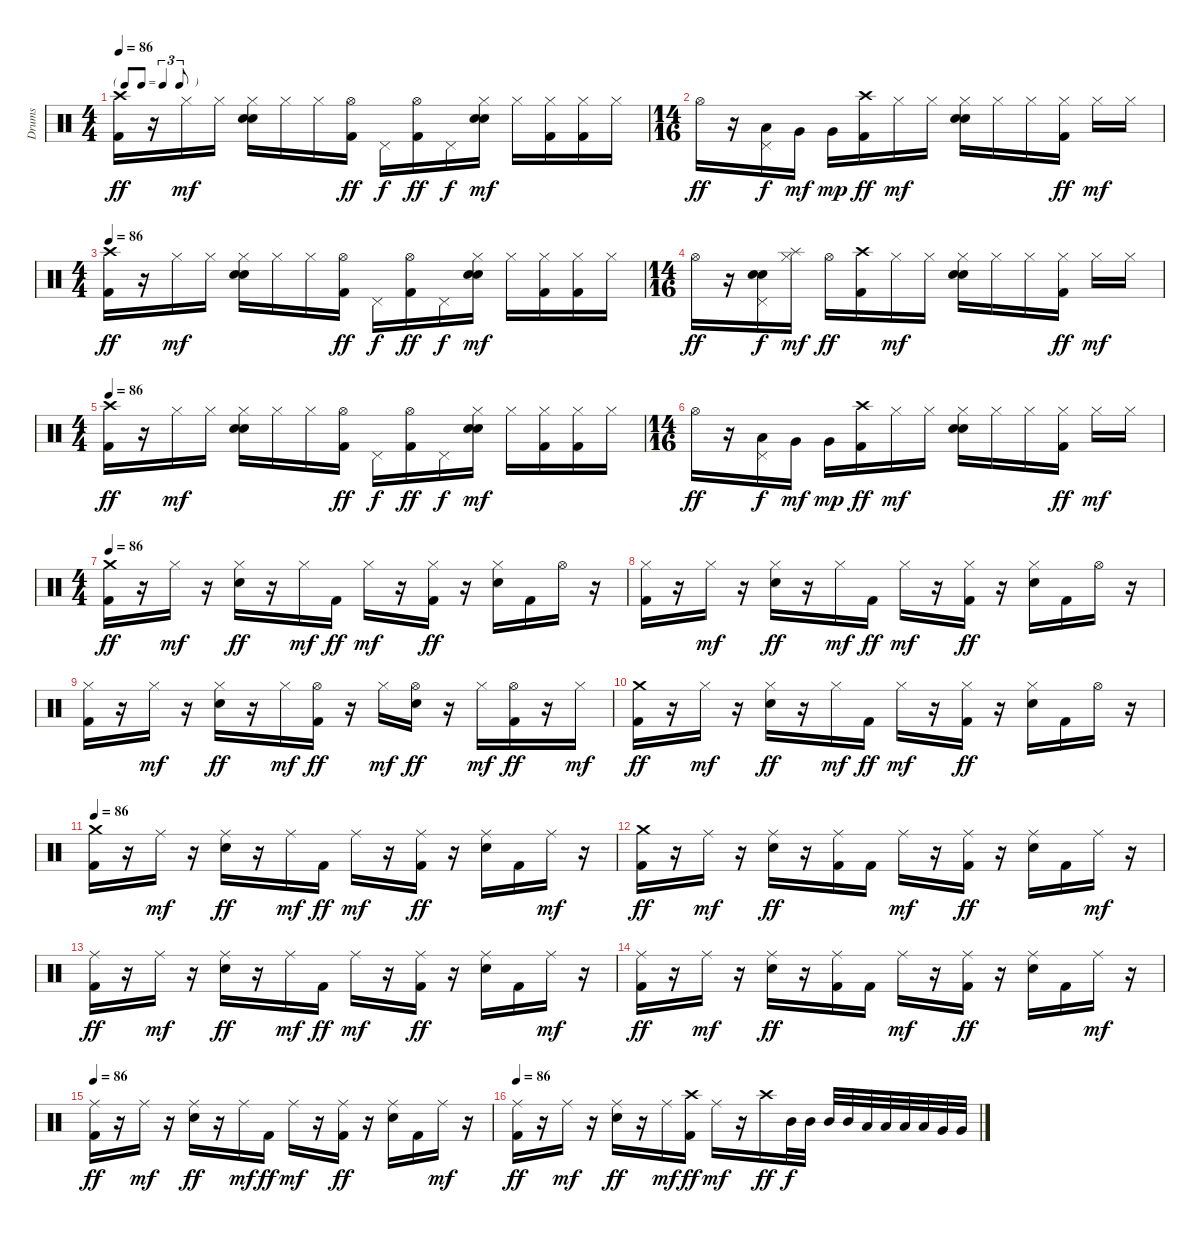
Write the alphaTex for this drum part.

\track ("Drums" "Drums") {instrument percussion}
\staff {score}
\articulation defaults
\ts (4 4)
\tf triplet8th
\tempo 86
\clef neutral
\ks c
("Crash high (hit)" "Kick (hit) 2").16{dy ff} r.16 "Hi-Hat (closed)".16{dy mf} "Hi-Hat (closed)".16 ("Hi-Hat (closed)" "Electric Snare (hit)" "Metronome (bell)").16 "Hi-Hat (closed)".16 "Hi-Hat (closed)".16 ("Hi-Hat (open)" "Kick (hit) 2").16{dy ff} "Pedal Hi-Hat (hit)".16{dy f} ("Hi-Hat (open)" "Kick (hit) 2").16{dy ff} "Pedal Hi-Hat (hit)".16{dy f} ("Hi-Hat (closed)" "Electric Snare (hit)" "Metronome (bell)").16{dy mf} "Hi-Hat (closed)".16 ("Hi-Hat (closed)" "Kick (hit) 2").16 ("Hi-Hat (closed)" "Kick (hit) 2").16 "Hi-Hat (closed)".16 |
\ts (14 16)
"Hi-Hat (open)".16{dy ff} r.16 ("Pedal Hi-Hat (hit)" "Low Tom (hit)").16{dy f} "Very Low Tom (hit)".16{dy mf} "Very Low Tom (hit)".16{dy mp} ("Crash high (hit)" "Kick (hit) 2").16{dy ff} "Hi-Hat (closed)".16{dy mf} "Hi-Hat (closed)".16 ("Hi-Hat (closed)" "Electric Snare (hit)" "Metronome (bell)").16 "Hi-Hat (closed)".16 "Hi-Hat (closed)".16 ("Hi-Hat (closed)" "Kick (hit) 2").16{dy ff} "Hi-Hat (closed)".16{dy mf} "Hi-Hat (closed)".16 |
\ts (4 4)
\tempo 86
("Crash high (hit)" "Kick (hit) 2").16{dy ff} r.16 "Hi-Hat (closed)".16{dy mf} "Hi-Hat (closed)".16 ("Hi-Hat (closed)" "Electric Snare (hit)" "Metronome (bell)").16 "Hi-Hat (closed)".16 "Hi-Hat (closed)".16 ("Hi-Hat (open)" "Kick (hit) 2").16{dy ff} "Pedal Hi-Hat (hit)".16{dy f} ("Hi-Hat (open)" "Kick (hit) 2").16{dy ff} "Pedal Hi-Hat (hit)".16{dy f} ("Hi-Hat (closed)" "Electric Snare (hit)" "Metronome (bell)").16{dy mf} "Hi-Hat (closed)".16 ("Hi-Hat (closed)" "Kick (hit) 2").16 ("Hi-Hat (closed)" "Kick (hit) 2").16 "Hi-Hat (closed)".16 |
\ts (14 16)
"Hi-Hat (open)".16{dy ff} r.16 ("Pedal Hi-Hat (hit)" "Electric Snare (hit)" "Metronome (bell)").16{dy f} ("Splash (hit)" "Hi-Hat (closed)").16{dy mf} "Hi-Hat (open)".16{dy ff} ("Crash high (hit)" "Kick (hit) 2").16 "Hi-Hat (closed)".16{dy mf} "Hi-Hat (closed)".16 ("Hi-Hat (closed)" "Electric Snare (hit)" "Metronome (bell)").16 "Hi-Hat (closed)".16 "Hi-Hat (closed)".16 ("Hi-Hat (closed)" "Kick (hit) 2").16{dy ff} "Hi-Hat (closed)".16{dy mf} "Hi-Hat (closed)".16 |
\ts (4 4)
\tempo 86
("Crash high (hit)" "Kick (hit) 2").16{dy ff} r.16 "Hi-Hat (closed)".16{dy mf} "Hi-Hat (closed)".16 ("Hi-Hat (closed)" "Electric Snare (hit)" "Metronome (bell)").16 "Hi-Hat (closed)".16 "Hi-Hat (closed)".16 ("Hi-Hat (open)" "Kick (hit) 2").16{dy ff} "Pedal Hi-Hat (hit)".16{dy f} ("Hi-Hat (open)" "Kick (hit) 2").16{dy ff} "Pedal Hi-Hat (hit)".16{dy f} ("Hi-Hat (closed)" "Electric Snare (hit)" "Metronome (bell)").16{dy mf} "Hi-Hat (closed)".16 ("Hi-Hat (closed)" "Kick (hit) 2").16 ("Hi-Hat (closed)" "Kick (hit) 2").16 "Hi-Hat (closed)".16 |
\ts (14 16)
"Hi-Hat (open)".16{dy ff} r.16 ("Pedal Hi-Hat (hit)" "Low Tom (hit)").16{dy f} "Very Low Tom (hit)".16{dy mf} "Very Low Tom (hit)".16{dy mp} ("Crash high (hit)" "Kick (hit) 2").16{dy ff} "Hi-Hat (closed)".16{dy mf} "Hi-Hat (closed)".16 ("Hi-Hat (closed)" "Electric Snare (hit)" "Metronome (bell)").16 "Hi-Hat (closed)".16 "Hi-Hat (closed)".16 ("Hi-Hat (closed)" "Kick (hit) 2").16{dy ff} "Hi-Hat (closed)".16{dy mf} "Hi-Hat (closed)".16 |
\ts (4 4)
\tempo 86
("Crash medium (hit)" "Kick (hit) 2").16{dy ff} r.16 "Hi-Hat (closed)".16{dy mf} r.16 ("Hi-Hat (closed)" "Electric Snare (hit)").16{dy ff} r.16 "Hi-Hat (closed)".16{dy mf} "Kick (hit) 2".16{dy ff} "Hi-Hat (closed)".16{dy mf} r.16 ("Hi-Hat (closed)" "Kick (hit) 2").16{dy ff} r.16 ("Hi-Hat (closed)" "Electric Snare (hit)").16 "Kick (hit) 2".16 "Hi-Hat (open)".16 r.16 |
("Hi-Hat (closed)" "Kick (hit) 2").16 r.16 "Hi-Hat (closed)".16{dy mf} r.16 ("Hi-Hat (closed)" "Electric Snare (hit)").16{dy ff} r.16 "Hi-Hat (closed)".16{dy mf} "Kick (hit) 2".16{dy ff} "Hi-Hat (closed)".16{dy mf} r.16 ("Hi-Hat (closed)" "Kick (hit) 2").16{dy ff} r.16 ("Hi-Hat (closed)" "Electric Snare (hit)").16 "Kick (hit) 2".16 "Hi-Hat (open)".16 r.16 |
("Hi-Hat (closed)" "Kick (hit) 2").16 r.16 "Hi-Hat (closed)".16{dy mf} r.16 ("Hi-Hat (closed)" "Electric Snare (hit)").16{dy ff} r.16 "Hi-Hat (closed)".16{dy mf} ("Hi-Hat (open)" "Kick (hit) 2").16{dy ff} r.16 "Hi-Hat (closed)".16{dy mf} ("Hi-Hat (open)" "Electric Snare (hit)").16{dy ff} r.16 "Hi-Hat (closed)".16{dy mf} ("Hi-Hat (open)" "Kick (hit) 2").16{dy ff} r.16 "Hi-Hat (closed)".16{dy mf} |
("Crash medium (hit)" "Kick (hit) 2").16{dy ff} r.16 "Hi-Hat (closed)".16{dy mf} r.16 ("Hi-Hat (closed)" "Electric Snare (hit)").16{dy ff} r.16 "Hi-Hat (closed)".16{dy mf} "Kick (hit) 2".16{dy ff} "Hi-Hat (closed)".16{dy mf} r.16 ("Hi-Hat (closed)" "Kick (hit) 2").16{dy ff} r.16 ("Hi-Hat (closed)" "Electric Snare (hit)").16 "Kick (hit) 2".16 "Hi-Hat (open)".16 r.16 |
\tempo 86
("Crash medium (hit)" "Kick (hit) 2").16 r.16 "Ride (middle)".16{dy mf} r.16 ("Ride (middle)" "Electric Snare (hit)").16{dy ff} r.16 "Ride (middle)".16{dy mf} "Kick (hit) 2".16{dy ff} "Ride (middle)".16{dy mf} r.16 ("Ride (middle)" "Kick (hit) 2").16{dy ff} r.16 ("Ride (middle)" "Electric Snare (hit)").16 "Kick (hit) 2".16 "Ride (middle)".16{dy mf} r.16 |
("Crash medium (hit)" "Kick (hit) 2").16{dy ff} r.16 "Ride (middle)".16{dy mf} r.16 ("Ride (middle)" "Electric Snare (hit)").16{dy ff} r.16 ("Ride (middle)" "Kick (hit) 2").16 "Kick (hit) 2".16 "Ride (middle)".16{dy mf} r.16 ("Ride (middle)" "Kick (hit) 2").16{dy ff} r.16 ("Ride (middle)" "Electric Snare (hit)").16 "Kick (hit) 2".16 "Ride (middle)".16{dy mf} r.16 |
("Ride (middle)" "Kick (hit) 2").16{dy ff} r.16 "Ride (middle)".16{dy mf} r.16 ("Ride (middle)" "Electric Snare (hit)").16{dy ff} r.16 "Ride (middle)".16{dy mf} "Kick (hit) 2".16{dy ff} "Ride (middle)".16{dy mf} r.16 ("Ride (middle)" "Kick (hit) 2").16{dy ff} r.16 ("Ride (middle)" "Electric Snare (hit)").16 "Kick (hit) 2".16 "Ride (middle)".16{dy mf} r.16 |
("Ride (middle)" "Kick (hit) 2").16{dy ff} r.16 "Ride (middle)".16{dy mf} r.16 ("Ride (middle)" "Electric Snare (hit)").16{dy ff} r.16 ("Ride (middle)" "Kick (hit) 2").16 "Kick (hit) 2".16 "Ride (middle)".16{dy mf} r.16 ("Ride (middle)" "Kick (hit) 2").16{dy ff} r.16 ("Ride (middle)" "Electric Snare (hit)").16 "Kick (hit) 2".16 "Ride (middle)".16{dy mf} r.16 |
\tempo 86
("Ride (middle)" "Kick (hit) 2").16{dy ff} r.16 "Ride (middle)".16{dy mf} r.16 ("Ride (middle)" "Electric Snare (hit)").16{dy ff} r.16 "Ride (middle)".16{dy mf} "Kick (hit) 2".16{dy ff} "Ride (middle)".16{dy mf} r.16 ("Ride (middle)" "Kick (hit) 2").16{dy ff} r.16 ("Ride (middle)" "Electric Snare (hit)").16 "Kick (hit) 2".16 "Ride (middle)".16{dy mf} r.16 |
\tempo 86
("Ride (middle)" "Kick (hit) 2").16{dy ff} r.16 "Ride (middle)".16{dy mf} r.16 ("Ride (middle)" "Electric Snare (hit)").16{dy ff} r.16 "Ride (middle)".16{dy mf} ("Crash high (hit)" "Kick (hit) 2").16{dy ff} "Ride (middle)".16{dy mf} r.16 "Crash high (hit)".16{dy ff} "Mid Tom (hit)".32{dy f} "Mid Tom (hit)".32 "Mid Tom (hit)".32 "Mid Tom (hit)".32 "Low Tom (hit)".32 "Low Tom (hit)".32 "Low Tom (hit)".32 "Low Tom (hit)".32 "Very Low Tom (hit)".32 "Very Low Tom (hit)".32
